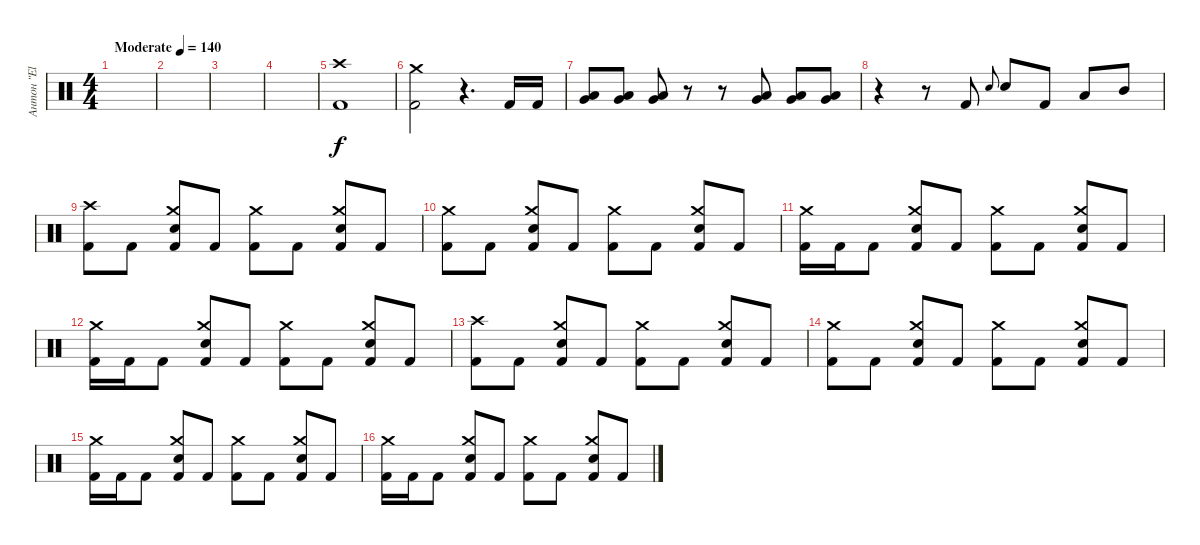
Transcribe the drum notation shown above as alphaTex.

\track ("Антон \"El Bastardo\" Смольянин" "Антон \"El ") {instrument percussion}
\staff {score}
\articulation defaults
\ts (4 4)
\tempo (140 "Moderate")
\clef neutral
\ks c
|
|
|
|
("Crash high (hit)" "Kick (hit) 2").1 |
("Crash medium (hit)" "Kick (hit) 2").2 r.4{d} "Kick (hit) 2".16 "Kick (hit) 2".16 |
("Low Tom (hit)" "Very Low Tom (hit)").8 ("Low Tom (hit)" "Very Low Tom (hit)").8 ("Low Tom (hit)" "Very Low Tom (hit)").8 r.8 r.8 ("Low Tom (hit)" "Very Low Tom (hit)").8 ("Low Tom (hit)" "Very Low Tom (hit)").8 ("Low Tom (hit)" "Very Low Tom (hit)").8 |
r.4 r.8 "Kick (hit) 2".8 "Electric Snare (hit)".8{gr onbeat} "Electric Snare (hit)".8 "Kick (hit) 2".8 "Low Tom (hit)".8 "Mid Tom (hit)".8 |
("Crash high (hit)" "Kick (hit) 2").8 "Kick (hit) 2".8 ("Crash medium (hit)" "Electric Snare (hit)" "Kick (hit) 2").8 "Kick (hit) 2".8 ("Crash medium (hit)" "Kick (hit) 2").8 "Kick (hit) 2".8 ("Crash medium (hit)" "Electric Snare (hit)" "Kick (hit) 2").8 "Kick (hit) 2".8 |
("Crash medium (hit)" "Kick (hit) 2").8 "Kick (hit) 2".8 ("Crash medium (hit)" "Electric Snare (hit)" "Kick (hit) 2").8 "Kick (hit) 2".8 ("Crash medium (hit)" "Kick (hit) 2").8 "Kick (hit) 2".8 ("Crash medium (hit)" "Electric Snare (hit)" "Kick (hit) 2").8 "Kick (hit) 2".8 |
("Crash medium (hit)" "Kick (hit) 2").16 "Kick (hit) 2".16 "Kick (hit) 2".8 ("Crash medium (hit)" "Electric Snare (hit)" "Kick (hit) 2").8 "Kick (hit) 2".8 ("Crash medium (hit)" "Kick (hit) 2").8 "Kick (hit) 2".8 ("Crash medium (hit)" "Electric Snare (hit)" "Kick (hit) 2").8 "Kick (hit) 2".8 |
("Crash medium (hit)" "Kick (hit) 2").16 "Kick (hit) 2".16 "Kick (hit) 2".8 ("Crash medium (hit)" "Electric Snare (hit)" "Kick (hit) 2").8 "Kick (hit) 2".8 ("Crash medium (hit)" "Kick (hit) 2").8 "Kick (hit) 2".8 ("Crash medium (hit)" "Electric Snare (hit)" "Kick (hit) 2").8 "Kick (hit) 2".8 |
("Crash high (hit)" "Kick (hit) 2").8 "Kick (hit) 2".8 ("Crash medium (hit)" "Electric Snare (hit)" "Kick (hit) 2").8 "Kick (hit) 2".8 ("Crash medium (hit)" "Kick (hit) 2").8 "Kick (hit) 2".8 ("Crash medium (hit)" "Electric Snare (hit)" "Kick (hit) 2").8 "Kick (hit) 2".8 |
("Crash medium (hit)" "Kick (hit) 2").8 "Kick (hit) 2".8 ("Crash medium (hit)" "Electric Snare (hit)" "Kick (hit) 2").8 "Kick (hit) 2".8 ("Crash medium (hit)" "Kick (hit) 2").8 "Kick (hit) 2".8 ("Crash medium (hit)" "Electric Snare (hit)" "Kick (hit) 2").8 "Kick (hit) 2".8 |
("Crash medium (hit)" "Kick (hit) 2").16 "Kick (hit) 2".16 "Kick (hit) 2".8 ("Crash medium (hit)" "Electric Snare (hit)" "Kick (hit) 2").8 "Kick (hit) 2".8 ("Crash medium (hit)" "Kick (hit) 2").8 "Kick (hit) 2".8 ("Crash medium (hit)" "Electric Snare (hit)" "Kick (hit) 2").8 "Kick (hit) 2".8 |
("Crash medium (hit)" "Kick (hit) 2").16 "Kick (hit) 2".16 "Kick (hit) 2".8 ("Crash medium (hit)" "Electric Snare (hit)" "Kick (hit) 2").8 "Kick (hit) 2".8 ("Crash medium (hit)" "Kick (hit) 2").8 "Kick (hit) 2".8 ("Crash medium (hit)" "Electric Snare (hit)" "Kick (hit) 2").8 "Kick (hit) 2".8
